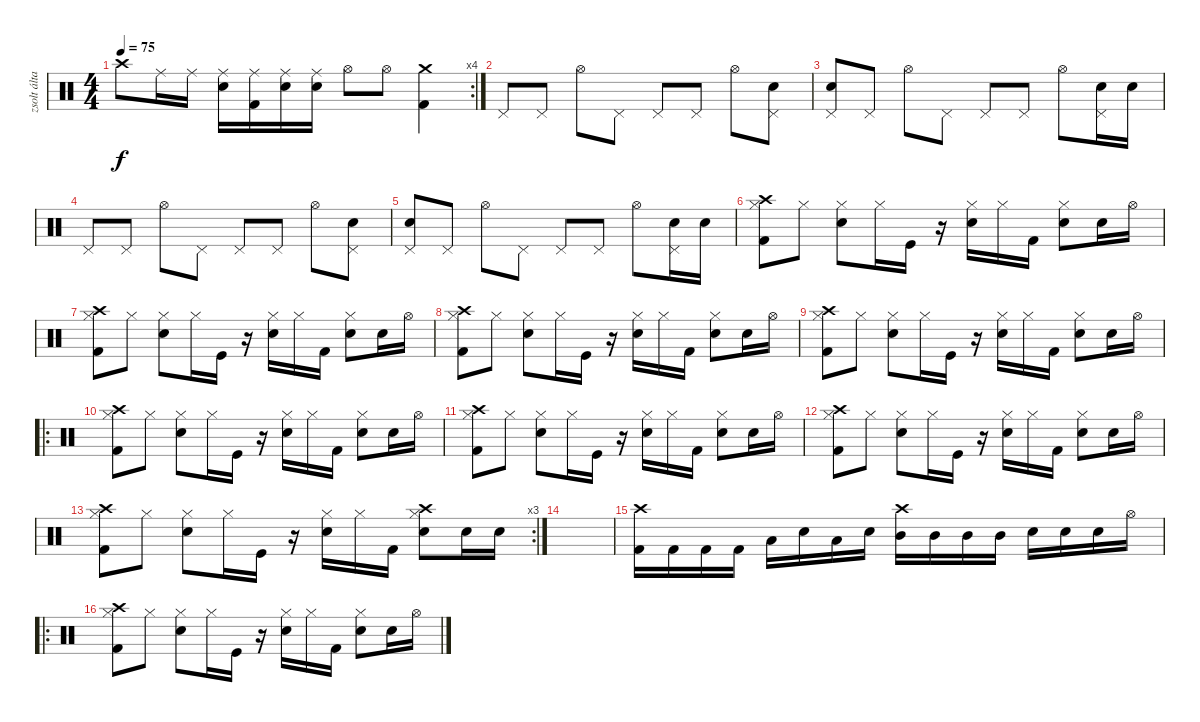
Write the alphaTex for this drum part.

\track ("zsolt által javított!!!!" "zsolt álta") {instrument percussion}
\staff {score}
\articulation defaults
\rc 4
\ts (4 4)
\tempo 75
\clef neutral
\ks c "Crash high (hit)".8{dy f} "Ride (middle)".16 "Ride (middle)".16
("Ride (middle)" "Snare (hit) 2").16 ("Ride (middle)" "Kick (hit) 2").16 ("Ride (middle)" "Snare (hit) 2").16 ("Ride (middle)" "Snare (hit) 2").16 "Hi-Hat (open)".8 "Hi-Hat (open)".8 ("Crash medium (hit)" "Kick (hit) 2").4 |
"Pedal Hi-Hat (hit)".8 "Pedal Hi-Hat (hit)".8 "Hi-Hat (open)".8 "Pedal Hi-Hat (hit)".8 "Pedal Hi-Hat (hit)".8 "Pedal Hi-Hat (hit)".8 "Hi-Hat (open)".8 ("Pedal Hi-Hat (hit)" "Snare (hit) 2").8 |
("Pedal Hi-Hat (hit)" "Snare (hit) 2").8 "Pedal Hi-Hat (hit)".8 "Hi-Hat (open)".8 "Pedal Hi-Hat (hit)".8 "Pedal Hi-Hat (hit)".8 "Pedal Hi-Hat (hit)".8 "Hi-Hat (open)".8 ("Pedal Hi-Hat (hit)" "Snare (hit) 2").16 "Snare (hit) 2".16 |
"Pedal Hi-Hat (hit)".8 "Pedal Hi-Hat (hit)".8 "Hi-Hat (open)".8 "Pedal Hi-Hat (hit)".8 "Pedal Hi-Hat (hit)".8 "Pedal Hi-Hat (hit)".8 "Hi-Hat (open)".8 ("Pedal Hi-Hat (hit)" "Snare (hit) 2").8 |
("Pedal Hi-Hat (hit)" "Snare (hit) 2").8 "Pedal Hi-Hat (hit)".8 "Hi-Hat (open)".8 "Pedal Hi-Hat (hit)".8 "Pedal Hi-Hat (hit)".8 "Pedal Hi-Hat (hit)".8 "Hi-Hat (open)".8 ("Pedal Hi-Hat (hit)" "Snare (hit) 2").16 "Snare (hit) 2".16 |
("Hi-Hat (closed)" "Kick (hit) 2" "Crash high (hit)").8 "Hi-Hat (closed)".8 ("Hi-Hat (closed)" "Snare (hit) 2").8 "Hi-Hat (closed)".16 "Kick (hit)".16 r.16 ("Snare (hit) 2" "Hi-Hat (closed)").16 "Hi-Hat (closed)".16 "Kick (hit) 2".16 ("Snare (hit) 2" "Hi-Hat (closed)").8 "Snare (hit) 2".16 "Hi-Hat (open)".16 |
("Hi-Hat (closed)" "Kick (hit) 2" "Crash high (hit)").8 "Hi-Hat (closed)".8 ("Hi-Hat (closed)" "Snare (hit) 2").8 "Hi-Hat (closed)".16 "Kick (hit)".16 r.16 ("Snare (hit) 2" "Hi-Hat (closed)").16 "Hi-Hat (closed)".16 "Kick (hit) 2".16 ("Snare (hit) 2" "Hi-Hat (closed)").8 "Snare (hit) 2".16 "Hi-Hat (open)".16 |
("Hi-Hat (closed)" "Kick (hit) 2" "Crash high (hit)").8 "Hi-Hat (closed)".8 ("Hi-Hat (closed)" "Snare (hit) 2").8 "Hi-Hat (closed)".16 "Kick (hit)".16 r.16 ("Snare (hit) 2" "Hi-Hat (closed)").16 "Hi-Hat (closed)".16 "Kick (hit) 2".16 ("Snare (hit) 2" "Hi-Hat (closed)").8 "Snare (hit) 2".16 "Hi-Hat (open)".16 |
("Hi-Hat (closed)" "Kick (hit) 2" "Crash high (hit)").8 "Hi-Hat (closed)".8 ("Hi-Hat (closed)" "Snare (hit) 2").8 "Hi-Hat (closed)".16 "Kick (hit)".16 r.16 ("Snare (hit) 2" "Hi-Hat (closed)").16 "Hi-Hat (closed)".16 "Kick (hit) 2".16 ("Snare (hit) 2" "Hi-Hat (closed)").8 "Snare (hit) 2".16 "Hi-Hat (open)".16 |
\ro
("Hi-Hat (closed)" "Kick (hit) 2" "Crash high (hit)").8 "Hi-Hat (closed)".8 ("Hi-Hat (closed)" "Snare (hit) 2").8 "Hi-Hat (closed)".16 "Kick (hit)".16 r.16 ("Snare (hit) 2" "Hi-Hat (closed)").16 "Hi-Hat (closed)".16 "Kick (hit) 2".16 ("Snare (hit) 2" "Hi-Hat (closed)").8 "Snare (hit) 2".16 "Hi-Hat (open)".16 |
("Hi-Hat (closed)" "Kick (hit) 2" "Crash high (hit)").8 "Hi-Hat (closed)".8 ("Hi-Hat (closed)" "Snare (hit) 2").8 "Hi-Hat (closed)".16 "Kick (hit)".16 r.16 ("Snare (hit) 2" "Hi-Hat (closed)").16 "Hi-Hat (closed)".16 "Kick (hit) 2".16 ("Snare (hit) 2" "Hi-Hat (closed)").8 "Snare (hit) 2".16 "Hi-Hat (open)".16 |
("Hi-Hat (closed)" "Kick (hit) 2" "Crash high (hit)").8 "Hi-Hat (closed)".8 ("Hi-Hat (closed)" "Snare (hit) 2").8 "Hi-Hat (closed)".16 "Kick (hit)".16 r.16 ("Snare (hit) 2" "Hi-Hat (closed)").16 "Hi-Hat (closed)".16 "Kick (hit) 2".16 ("Snare (hit) 2" "Hi-Hat (closed)").8 "Snare (hit) 2".16 "Hi-Hat (open)".16 |
\rc 3
("Hi-Hat (closed)" "Kick (hit) 2" "Crash high (hit)").8 "Hi-Hat (closed)".8 ("Hi-Hat (closed)" "Snare (hit) 2").8 "Hi-Hat (closed)".16 "Kick (hit)".16 r.16 ("Snare (hit) 2" "Hi-Hat (closed)").16 "Hi-Hat (closed)".16 "Kick (hit) 2".16 ("Crash high (hit)" "Snare (hit) 2" "Hi-Hat (closed)").8 "Snare (hit) 2".16 "Snare (hit) 2".16 |
|
("Kick (hit) 2" "Crash high (hit)").16 "Kick (hit) 2".16 "Kick (hit) 2".16 "Kick (hit) 2".16 "Low Tom (hit)".16 "Snare (hit) 2".16 "Low Tom (hit)".16 "Snare (hit) 2".16 ("Mid Tom (hit)" "Crash high (hit)").16 "Mid Tom (hit)".16 "Mid Tom (hit)".16 "Mid Tom (hit)".16 "Snare (hit) 2".16 "Snare (hit) 2".16 "Snare (hit) 2".16 "Hi-Hat (open)".16 |
\ro
("Hi-Hat (closed)" "Kick (hit) 2" "Crash high (hit)").8 "Hi-Hat (closed)".8 ("Hi-Hat (closed)" "Snare (hit) 2").8 "Hi-Hat (closed)".16 "Kick (hit)".16 r.16 ("Snare (hit) 2" "Hi-Hat (closed)").16 "Hi-Hat (closed)".16 "Kick (hit) 2".16 ("Snare (hit) 2" "Hi-Hat (closed)").8 "Snare (hit) 2".16 "Hi-Hat (open)".16
